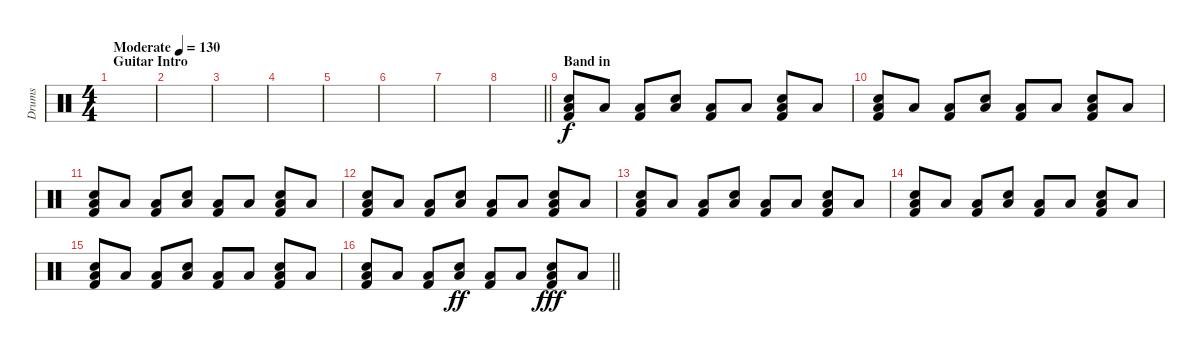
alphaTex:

\track ("Drums" "Drums") {instrument percussion}
\staff {score}
\articulation defaults
\ts (4 4)
\section ("" "Guitar Intro")
\tempo (130 "Moderate")
\clef neutral
\ks c
|
|
|
|
|
|
|
\barLineRight lightlight
|
\section ("" "Band in")
("Kick (hit) 2" "Low Floor Tom (hit)" "Electric Snare (hit)").8 "Low Floor Tom (hit)".8 ("Kick (hit) 2" "Low Floor Tom (hit)").8 ("Low Floor Tom (hit)" "Electric Snare (hit)").8 ("Kick (hit) 2" "Low Floor Tom (hit)").8 "Low Floor Tom (hit)".8 ("Kick (hit) 2" "Low Floor Tom (hit)" "Electric Snare (hit)").8 "Low Floor Tom (hit)".8 |
("Kick (hit) 2" "Low Floor Tom (hit)" "Electric Snare (hit)").8 "Low Floor Tom (hit)".8 ("Kick (hit) 2" "Low Floor Tom (hit)").8 ("Low Floor Tom (hit)" "Electric Snare (hit)").8 ("Kick (hit) 2" "Low Floor Tom (hit)").8 "Low Floor Tom (hit)".8 ("Kick (hit) 2" "Low Floor Tom (hit)" "Electric Snare (hit)").8 "Low Floor Tom (hit)".8 |
("Kick (hit) 2" "Low Floor Tom (hit)" "Electric Snare (hit)").8 "Low Floor Tom (hit)".8 ("Kick (hit) 2" "Low Floor Tom (hit)").8 ("Low Floor Tom (hit)" "Electric Snare (hit)").8 ("Kick (hit) 2" "Low Floor Tom (hit)").8 "Low Floor Tom (hit)".8 ("Kick (hit) 2" "Low Floor Tom (hit)" "Electric Snare (hit)").8 "Low Floor Tom (hit)".8 |
("Kick (hit) 2" "Low Floor Tom (hit)" "Electric Snare (hit)").8 "Low Floor Tom (hit)".8 ("Kick (hit) 2" "Low Floor Tom (hit)").8 ("Low Floor Tom (hit)" "Electric Snare (hit)").8 ("Kick (hit) 2" "Low Floor Tom (hit)").8 "Low Floor Tom (hit)".8 ("Kick (hit) 2" "Low Floor Tom (hit)" "Electric Snare (hit)").8 "Low Floor Tom (hit)".8 |
("Kick (hit) 2" "Low Floor Tom (hit)" "Electric Snare (hit)").8 "Low Floor Tom (hit)".8 ("Kick (hit) 2" "Low Floor Tom (hit)").8 ("Low Floor Tom (hit)" "Electric Snare (hit)").8 ("Kick (hit) 2" "Low Floor Tom (hit)").8 "Low Floor Tom (hit)".8 ("Kick (hit) 2" "Low Floor Tom (hit)" "Electric Snare (hit)").8 "Low Floor Tom (hit)".8 |
("Kick (hit) 2" "Low Floor Tom (hit)" "Electric Snare (hit)").8 "Low Floor Tom (hit)".8 ("Kick (hit) 2" "Low Floor Tom (hit)").8 ("Low Floor Tom (hit)" "Electric Snare (hit)").8 ("Kick (hit) 2" "Low Floor Tom (hit)").8 "Low Floor Tom (hit)".8 ("Kick (hit) 2" "Low Floor Tom (hit)" "Electric Snare (hit)").8 "Low Floor Tom (hit)".8 |
("Kick (hit) 2" "Low Floor Tom (hit)" "Electric Snare (hit)").8 "Low Floor Tom (hit)".8 ("Kick (hit) 2" "Low Floor Tom (hit)").8 ("Low Floor Tom (hit)" "Electric Snare (hit)").8 ("Kick (hit) 2" "Low Floor Tom (hit)").8 "Low Floor Tom (hit)".8 ("Kick (hit) 2" "Low Floor Tom (hit)" "Electric Snare (hit)").8 "Low Floor Tom (hit)".8 |
\barLineRight lightlight
("Kick (hit) 2" "Low Floor Tom (hit)" "Electric Snare (hit)").8 "Low Floor Tom (hit)".8 ("Kick (hit) 2" "Low Floor Tom (hit)").8 ("Low Floor Tom (hit)" "Electric Snare (hit)").8{dy ff} ("Kick (hit) 2" "Low Floor Tom (hit)").8 "Low Floor Tom (hit)".8 ("Kick (hit) 2" "Low Floor Tom (hit)" "Electric Snare (hit)").8{dy fff} "Low Floor Tom (hit)".8
